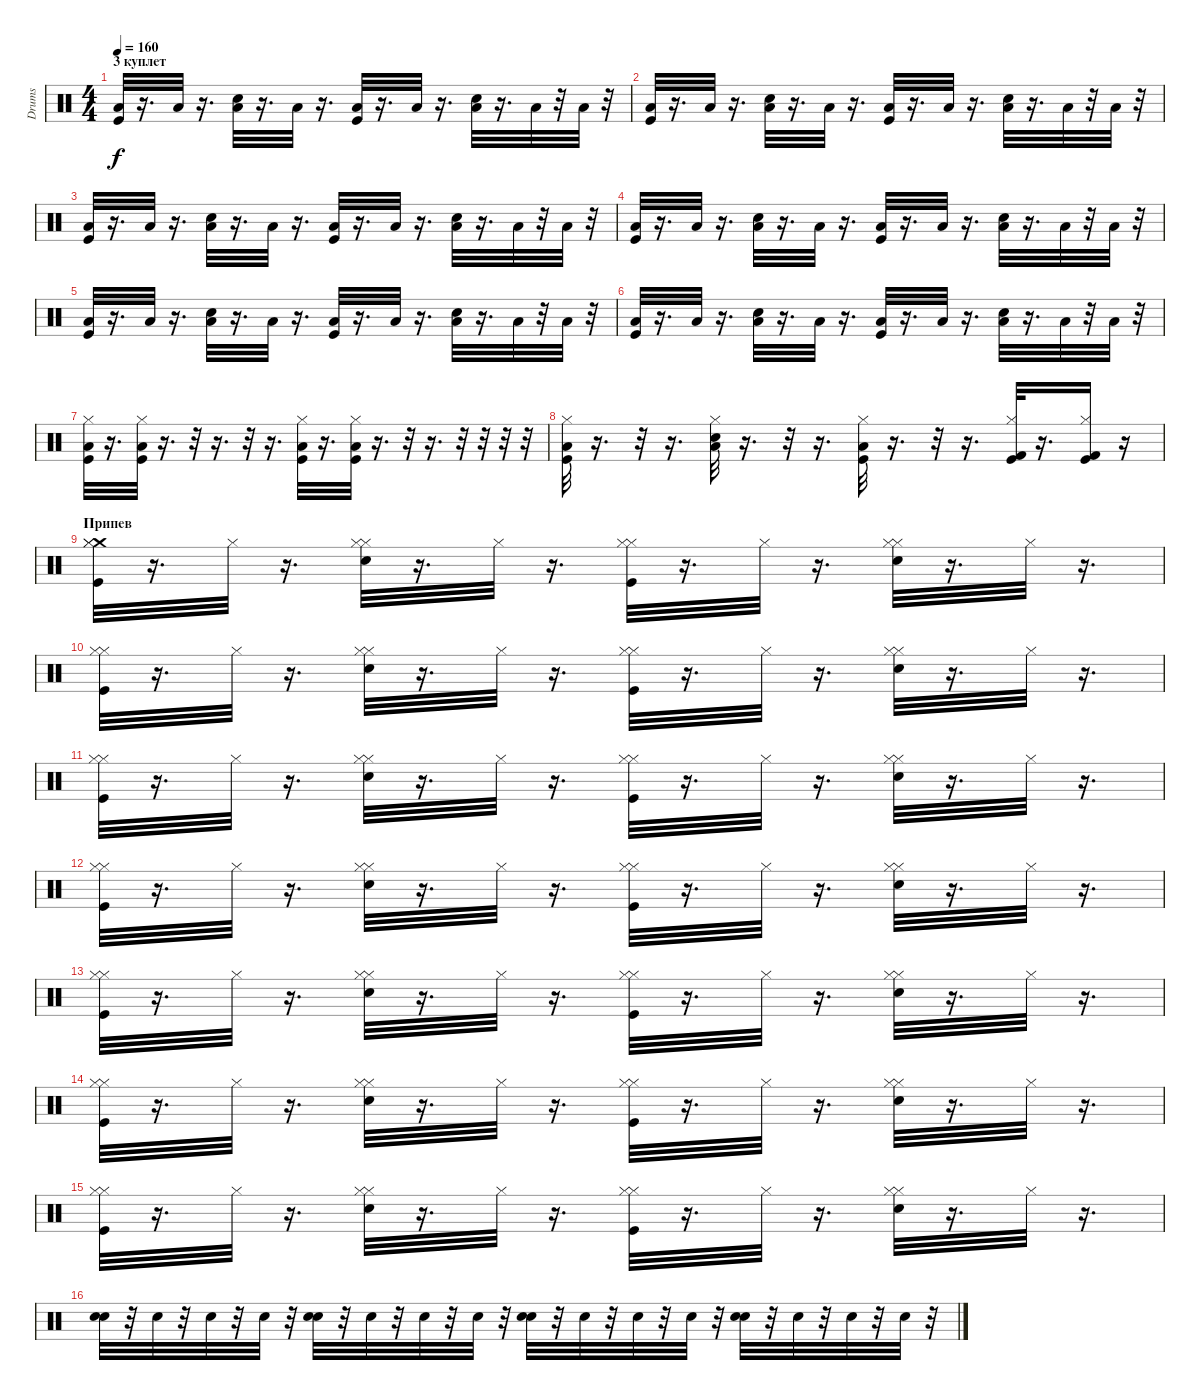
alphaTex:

\track ("Drums" "Drums") {instrument percussion}
\staff {score}
\articulation defaults
\ts (4 4)
\section ("" "3 куплет")
\tempo 160
\clef neutral
\ks c
("Kick (hit)" "Low Floor Tom (hit)").32{dy f} r.16{d} "Low Floor Tom (hit)".32 r.16{d} ("Low Floor Tom (hit)" "Snare (hit) 2").32 r.16{d} "Low Floor Tom (hit)".32 r.16{d} ("Kick (hit)" "Low Floor Tom (hit)").32 r.16{d} "Low Floor Tom (hit)".32 r.16{d} ("Low Floor Tom (hit)" "Snare (hit) 2").32 r.16{d} "Low Floor Tom (hit)".32 r.32 "Low Floor Tom (hit)".32 r.32 |
("Kick (hit)" "Low Floor Tom (hit)").32 r.16{d} "Low Floor Tom (hit)".32 r.16{d} ("Low Floor Tom (hit)" "Snare (hit) 2").32 r.16{d} "Low Floor Tom (hit)".32 r.16{d} ("Low Floor Tom (hit)" "Kick (hit)").32 r.16{d} "Low Floor Tom (hit)".32 r.16{d} ("Snare (hit) 2" "Low Floor Tom (hit)").32 r.16{d} "Low Floor Tom (hit)".32 r.32 "Low Floor Tom (hit)".32 r.32 |
("Kick (hit)" "Low Floor Tom (hit)").32 r.16{d} "Low Floor Tom (hit)".32 r.16{d} ("Low Floor Tom (hit)" "Snare (hit) 2").32 r.16{d} "Low Floor Tom (hit)".32 r.16{d} ("Kick (hit)" "Low Floor Tom (hit)").32 r.16{d} "Low Floor Tom (hit)".32 r.16{d} ("Low Floor Tom (hit)" "Snare (hit) 2").32 r.16{d} "Low Floor Tom (hit)".32 r.32 "Low Floor Tom (hit)".32 r.32 |
("Kick (hit)" "Low Floor Tom (hit)").32 r.16{d} "Low Floor Tom (hit)".32 r.16{d} ("Low Floor Tom (hit)" "Snare (hit) 2").32 r.16{d} "Low Floor Tom (hit)".32 r.16{d} ("Low Floor Tom (hit)" "Kick (hit)").32 r.16{d} "Low Floor Tom (hit)".32 r.16{d} ("Snare (hit) 2" "Low Floor Tom (hit)").32 r.16{d} "Low Floor Tom (hit)".32 r.32 "Low Floor Tom (hit)".32 r.32 |
("Kick (hit)" "Low Floor Tom (hit)").32 r.16{d} "Low Floor Tom (hit)".32 r.16{d} ("Low Floor Tom (hit)" "Snare (hit) 2").32 r.16{d} "Low Floor Tom (hit)".32 r.16{d} ("Kick (hit)" "Low Floor Tom (hit)").32 r.16{d} "Low Floor Tom (hit)".32 r.16{d} ("Low Floor Tom (hit)" "Snare (hit) 2").32 r.16{d} "Low Floor Tom (hit)".32 r.32 "Low Floor Tom (hit)".32 r.32 |
("Kick (hit)" "Low Floor Tom (hit)").32 r.16{d} "Low Floor Tom (hit)".32 r.16{d} ("Low Floor Tom (hit)" "Snare (hit) 2").32 r.16{d} "Low Floor Tom (hit)".32 r.16{d} ("Low Floor Tom (hit)" "Kick (hit)").32 r.16{d} "Low Floor Tom (hit)".32 r.16{d} ("Snare (hit) 2" "Low Floor Tom (hit)").32 r.16{d} "Low Floor Tom (hit)".32 r.32 "Low Floor Tom (hit)".32 r.32 |
("Kick (hit)" "Low Floor Tom (hit)" "Hi-Hat (closed)").32 r.16{d} ("Kick (hit)" "Low Floor Tom (hit)" "Hi-Hat (closed)").32 r.16{d} r.32 r.16{d} r.32 r.16{d} ("Kick (hit)" "Low Floor Tom (hit)" "Hi-Hat (closed)").32 r.16{d} ("Kick (hit)" "Low Floor Tom (hit)" "Hi-Hat (closed)").32 r.16{d} r.32 r.16{d} r.32 r.32 r.32 r.32 |
("Kick (hit)" "Low Floor Tom (hit)" "Hi-Hat (closed)").32 r.16{d} r.32 r.16{d} ("Low Floor Tom (hit)" "Snare (hit) 2" "Hi-Hat (closed)").32 r.16{d} r.32 r.16{d} ("Low Floor Tom (hit)" "Kick (hit)" "Hi-Hat (closed)").32 r.16{d} r.32 r.16{d} ("Hi-Hat (closed)" "Kick (hit) 2" "Kick (hit)").32 r.16{d} ("Hi-Hat (closed)" "Kick (hit) 2" "Kick (hit)").16 r.16 |
\section ("" "Припев")
("Crash medium (hit)" "Hi-Hat (closed)" "Hi-Hat (closed)" "Kick (hit)").32 r.16{d} "Hi-Hat (closed)".32 r.16{d} ("Hi-Hat (closed)" "Hi-Hat (closed)" "Snare (hit) 2").32 r.16{d} "Hi-Hat (closed)".32 r.16{d} ("Hi-Hat (closed)" "Hi-Hat (closed)" "Kick (hit)").32 r.16{d} "Hi-Hat (closed)".32 r.16{d} ("Hi-Hat (closed)" "Hi-Hat (closed)" "Snare (hit) 2").32 r.16{d} "Hi-Hat (closed)".32 r.16{d} |
("Hi-Hat (closed)" "Hi-Hat (closed)" "Kick (hit)").32 r.16{d} "Hi-Hat (closed)".32 r.16{d} ("Hi-Hat (closed)" "Hi-Hat (closed)" "Snare (hit) 2").32 r.16{d} "Hi-Hat (closed)".32 r.16{d} ("Hi-Hat (closed)" "Hi-Hat (closed)" "Kick (hit)").32 r.16{d} "Hi-Hat (closed)".32 r.16{d} ("Hi-Hat (closed)" "Hi-Hat (closed)" "Snare (hit) 2").32 r.16{d} "Hi-Hat (closed)".32 r.16{d} |
("Hi-Hat (closed)" "Hi-Hat (closed)" "Kick (hit)").32 r.16{d} "Hi-Hat (closed)".32 r.16{d} ("Hi-Hat (closed)" "Hi-Hat (closed)" "Snare (hit) 2").32 r.16{d} "Hi-Hat (closed)".32 r.16{d} ("Hi-Hat (closed)" "Hi-Hat (closed)" "Kick (hit)").32 r.16{d} "Hi-Hat (closed)".32 r.16{d} ("Hi-Hat (closed)" "Hi-Hat (closed)" "Snare (hit) 2").32 r.16{d} "Hi-Hat (closed)".32 r.16{d} |
("Hi-Hat (closed)" "Hi-Hat (closed)" "Kick (hit)").32 r.16{d} "Hi-Hat (closed)".32 r.16{d} ("Hi-Hat (closed)" "Hi-Hat (closed)" "Snare (hit) 2").32 r.16{d} "Hi-Hat (closed)".32 r.16{d} ("Hi-Hat (closed)" "Hi-Hat (closed)" "Kick (hit)").32 r.16{d} "Hi-Hat (closed)".32 r.16{d} ("Hi-Hat (closed)" "Hi-Hat (closed)" "Snare (hit) 2").32 r.16{d} "Hi-Hat (closed)".32 r.16{d} |
("Hi-Hat (closed)" "Hi-Hat (closed)" "Kick (hit)").32 r.16{d} "Hi-Hat (closed)".32 r.16{d} ("Hi-Hat (closed)" "Hi-Hat (closed)" "Snare (hit) 2").32 r.16{d} "Hi-Hat (closed)".32 r.16{d} ("Hi-Hat (closed)" "Hi-Hat (closed)" "Kick (hit)").32 r.16{d} "Hi-Hat (closed)".32 r.16{d} ("Hi-Hat (closed)" "Hi-Hat (closed)" "Snare (hit) 2").32 r.16{d} "Hi-Hat (closed)".32 r.16{d} |
("Hi-Hat (closed)" "Hi-Hat (closed)" "Kick (hit)").32 r.16{d} "Hi-Hat (closed)".32 r.16{d} ("Hi-Hat (closed)" "Hi-Hat (closed)" "Snare (hit) 2").32 r.16{d} "Hi-Hat (closed)".32 r.16{d} ("Hi-Hat (closed)" "Hi-Hat (closed)" "Kick (hit)").32 r.16{d} "Hi-Hat (closed)".32 r.16{d} ("Hi-Hat (closed)" "Hi-Hat (closed)" "Snare (hit) 2").32 r.16{d} "Hi-Hat (closed)".32 r.16{d} |
("Hi-Hat (closed)" "Hi-Hat (closed)" "Kick (hit)").32 r.16{d} "Hi-Hat (closed)".32 r.16{d} ("Hi-Hat (closed)" "Hi-Hat (closed)" "Snare (hit) 2").32 r.16{d} "Hi-Hat (closed)".32 r.16{d} ("Hi-Hat (closed)" "Hi-Hat (closed)" "Kick (hit)").32 r.16{d} "Hi-Hat (closed)".32 r.16{d} ("Hi-Hat (closed)" "Hi-Hat (closed)" "Snare (hit) 2").32 r.16{d} "Hi-Hat (closed)".32 r.16{d} |
("Snare (hit) 2" "Snare (hit) 2").32 r.32 "Snare (hit) 2".32 r.32 "Snare (hit) 2".32 r.32 "Snare (hit) 2".32 r.32 ("Snare (hit) 2" "Snare (hit) 2").32 r.32 "Snare (hit) 2".32 r.32 "Snare (hit) 2".32 r.32 "Snare (hit) 2".32 r.32 ("Snare (hit) 2" "Snare (hit) 2").32 r.32 "Snare (hit) 2".32 r.32 "Snare (hit) 2".32 r.32 "Snare (hit) 2".32 r.32 ("Snare (hit) 2" "Snare (hit) 2").32 r.32 "Snare (hit) 2".32 r.32 "Snare (hit) 2".32 r.32 "Snare (hit) 2".32 r.32
